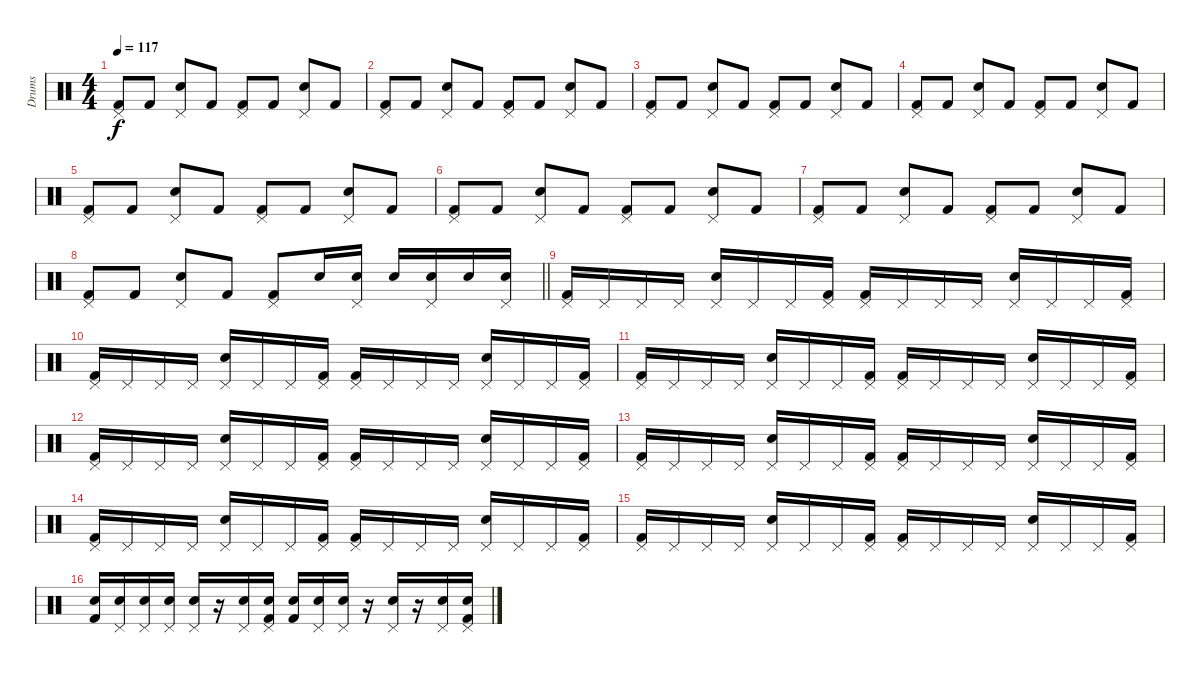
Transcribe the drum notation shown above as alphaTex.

\track ("Drums" "Drums") {instrument percussion}
\staff {score}
\articulation defaults
\ts (4 4)
\tempo 117
\clef neutral
\ks c
("Kick (hit) 2" "Pedal Hi-Hat (hit)").8{dy f} "Kick (hit) 2".8 ("Snare (hit) 2" "Pedal Hi-Hat (hit)").8 "Kick (hit) 2".8 ("Kick (hit) 2" "Pedal Hi-Hat (hit)").8 "Kick (hit) 2".8 ("Snare (hit) 2" "Pedal Hi-Hat (hit)").8 "Kick (hit) 2".8 |
("Kick (hit) 2" "Pedal Hi-Hat (hit)").8 "Kick (hit) 2".8 ("Snare (hit) 2" "Pedal Hi-Hat (hit)").8 "Kick (hit) 2".8 ("Kick (hit) 2" "Pedal Hi-Hat (hit)").8 "Kick (hit) 2".8 ("Snare (hit) 2" "Pedal Hi-Hat (hit)").8 "Kick (hit) 2".8 |
("Kick (hit) 2" "Pedal Hi-Hat (hit)").8 "Kick (hit) 2".8 ("Snare (hit) 2" "Pedal Hi-Hat (hit)").8 "Kick (hit) 2".8 ("Kick (hit) 2" "Pedal Hi-Hat (hit)").8 "Kick (hit) 2".8 ("Snare (hit) 2" "Pedal Hi-Hat (hit)").8 "Kick (hit) 2".8 |
("Kick (hit) 2" "Pedal Hi-Hat (hit)").8 "Kick (hit) 2".8 ("Snare (hit) 2" "Pedal Hi-Hat (hit)").8 "Kick (hit) 2".8 ("Kick (hit) 2" "Pedal Hi-Hat (hit)").8 "Kick (hit) 2".8 ("Snare (hit) 2" "Pedal Hi-Hat (hit)").8 "Kick (hit) 2".8 |
("Kick (hit) 2" "Pedal Hi-Hat (hit)").8 "Kick (hit) 2".8 ("Snare (hit) 2" "Pedal Hi-Hat (hit)").8 "Kick (hit) 2".8 ("Kick (hit) 2" "Pedal Hi-Hat (hit)").8 "Kick (hit) 2".8 ("Snare (hit) 2" "Pedal Hi-Hat (hit)").8 "Kick (hit) 2".8 |
("Kick (hit) 2" "Pedal Hi-Hat (hit)").8 "Kick (hit) 2".8 ("Snare (hit) 2" "Pedal Hi-Hat (hit)").8 "Kick (hit) 2".8 ("Kick (hit) 2" "Pedal Hi-Hat (hit)").8 "Kick (hit) 2".8 ("Snare (hit) 2" "Pedal Hi-Hat (hit)").8 "Kick (hit) 2".8 |
("Kick (hit) 2" "Pedal Hi-Hat (hit)").8 "Kick (hit) 2".8 ("Snare (hit) 2" "Pedal Hi-Hat (hit)").8 "Kick (hit) 2".8 ("Kick (hit) 2" "Pedal Hi-Hat (hit)").8 "Kick (hit) 2".8 ("Snare (hit) 2" "Pedal Hi-Hat (hit)").8 "Kick (hit) 2".8 |
\barLineRight lightlight
("Kick (hit) 2" "Pedal Hi-Hat (hit)").8 "Kick (hit) 2".8 ("Snare (hit) 2" "Pedal Hi-Hat (hit)").8 "Kick (hit) 2".8 ("Kick (hit) 2" "Pedal Hi-Hat (hit)").8 "Snare (hit) 2".16 ("Snare (hit) 2" "Pedal Hi-Hat (hit)").16 "Snare (hit) 2".16 ("Snare (hit) 2" "Pedal Hi-Hat (hit)").16 "Snare (hit) 2".16 ("Snare (hit) 2" "Pedal Hi-Hat (hit)").16 |
("Kick (hit) 2" "Pedal Hi-Hat (hit)").16 "Pedal Hi-Hat (hit)".16 "Pedal Hi-Hat (hit)".16 "Pedal Hi-Hat (hit)".16 ("Snare (hit) 2" "Pedal Hi-Hat (hit)").16 "Pedal Hi-Hat (hit)".16 "Pedal Hi-Hat (hit)".16 ("Kick (hit) 2" "Pedal Hi-Hat (hit)").16 ("Kick (hit) 2" "Pedal Hi-Hat (hit)").16 "Pedal Hi-Hat (hit)".16 "Pedal Hi-Hat (hit)".16 "Pedal Hi-Hat (hit)".16 ("Snare (hit) 2" "Pedal Hi-Hat (hit)").16 "Pedal Hi-Hat (hit)".16 "Pedal Hi-Hat (hit)".16 ("Kick (hit) 2" "Pedal Hi-Hat (hit)").16 |
("Kick (hit) 2" "Pedal Hi-Hat (hit)").16 "Pedal Hi-Hat (hit)".16 "Pedal Hi-Hat (hit)".16 "Pedal Hi-Hat (hit)".16 ("Snare (hit) 2" "Pedal Hi-Hat (hit)").16 "Pedal Hi-Hat (hit)".16 "Pedal Hi-Hat (hit)".16 ("Kick (hit) 2" "Pedal Hi-Hat (hit)").16 ("Kick (hit) 2" "Pedal Hi-Hat (hit)").16 "Pedal Hi-Hat (hit)".16 "Pedal Hi-Hat (hit)".16 "Pedal Hi-Hat (hit)".16 ("Snare (hit) 2" "Pedal Hi-Hat (hit)").16 "Pedal Hi-Hat (hit)".16 "Pedal Hi-Hat (hit)".16 ("Kick (hit) 2" "Pedal Hi-Hat (hit)").16 |
("Kick (hit) 2" "Pedal Hi-Hat (hit)").16 "Pedal Hi-Hat (hit)".16 "Pedal Hi-Hat (hit)".16 "Pedal Hi-Hat (hit)".16 ("Snare (hit) 2" "Pedal Hi-Hat (hit)").16 "Pedal Hi-Hat (hit)".16 "Pedal Hi-Hat (hit)".16 ("Kick (hit) 2" "Pedal Hi-Hat (hit)").16 ("Kick (hit) 2" "Pedal Hi-Hat (hit)").16 "Pedal Hi-Hat (hit)".16 "Pedal Hi-Hat (hit)".16 "Pedal Hi-Hat (hit)".16 ("Snare (hit) 2" "Pedal Hi-Hat (hit)").16 "Pedal Hi-Hat (hit)".16 "Pedal Hi-Hat (hit)".16 ("Kick (hit) 2" "Pedal Hi-Hat (hit)").16 |
("Kick (hit) 2" "Pedal Hi-Hat (hit)").16 "Pedal Hi-Hat (hit)".16 "Pedal Hi-Hat (hit)".16 "Pedal Hi-Hat (hit)".16 ("Snare (hit) 2" "Pedal Hi-Hat (hit)").16 "Pedal Hi-Hat (hit)".16 "Pedal Hi-Hat (hit)".16 ("Kick (hit) 2" "Pedal Hi-Hat (hit)").16 ("Kick (hit) 2" "Pedal Hi-Hat (hit)").16 "Pedal Hi-Hat (hit)".16 "Pedal Hi-Hat (hit)".16 "Pedal Hi-Hat (hit)".16 ("Snare (hit) 2" "Pedal Hi-Hat (hit)").16 "Pedal Hi-Hat (hit)".16 "Pedal Hi-Hat (hit)".16 ("Kick (hit) 2" "Pedal Hi-Hat (hit)").16 |
("Kick (hit) 2" "Pedal Hi-Hat (hit)").16 "Pedal Hi-Hat (hit)".16 "Pedal Hi-Hat (hit)".16 "Pedal Hi-Hat (hit)".16 ("Snare (hit) 2" "Pedal Hi-Hat (hit)").16 "Pedal Hi-Hat (hit)".16 "Pedal Hi-Hat (hit)".16 ("Kick (hit) 2" "Pedal Hi-Hat (hit)").16 ("Kick (hit) 2" "Pedal Hi-Hat (hit)").16 "Pedal Hi-Hat (hit)".16 "Pedal Hi-Hat (hit)".16 "Pedal Hi-Hat (hit)".16 ("Snare (hit) 2" "Pedal Hi-Hat (hit)").16 "Pedal Hi-Hat (hit)".16 "Pedal Hi-Hat (hit)".16 ("Kick (hit) 2" "Pedal Hi-Hat (hit)").16 |
("Kick (hit) 2" "Pedal Hi-Hat (hit)").16 "Pedal Hi-Hat (hit)".16 "Pedal Hi-Hat (hit)".16 "Pedal Hi-Hat (hit)".16 ("Snare (hit) 2" "Pedal Hi-Hat (hit)").16 "Pedal Hi-Hat (hit)".16 "Pedal Hi-Hat (hit)".16 ("Kick (hit) 2" "Pedal Hi-Hat (hit)").16 ("Kick (hit) 2" "Pedal Hi-Hat (hit)").16 "Pedal Hi-Hat (hit)".16 "Pedal Hi-Hat (hit)".16 "Pedal Hi-Hat (hit)".16 ("Snare (hit) 2" "Pedal Hi-Hat (hit)").16 "Pedal Hi-Hat (hit)".16 "Pedal Hi-Hat (hit)".16 ("Kick (hit) 2" "Pedal Hi-Hat (hit)").16 |
("Kick (hit) 2" "Pedal Hi-Hat (hit)").16 "Pedal Hi-Hat (hit)".16 "Pedal Hi-Hat (hit)".16 "Pedal Hi-Hat (hit)".16 ("Snare (hit) 2" "Pedal Hi-Hat (hit)").16 "Pedal Hi-Hat (hit)".16 "Pedal Hi-Hat (hit)".16 ("Kick (hit) 2" "Pedal Hi-Hat (hit)").16 ("Kick (hit) 2" "Pedal Hi-Hat (hit)").16 "Pedal Hi-Hat (hit)".16 "Pedal Hi-Hat (hit)".16 "Pedal Hi-Hat (hit)".16 ("Snare (hit) 2" "Pedal Hi-Hat (hit)").16 "Pedal Hi-Hat (hit)".16 "Pedal Hi-Hat (hit)".16 ("Kick (hit) 2" "Pedal Hi-Hat (hit)").16 |
("Kick (hit) 2" "Snare (hit) 2").16 ("Snare (hit) 2" "Pedal Hi-Hat (hit)").16 ("Snare (hit) 2" "Pedal Hi-Hat (hit)").16 ("Snare (hit) 2" "Pedal Hi-Hat (hit)").16 ("Snare (hit) 2" "Pedal Hi-Hat (hit)").16 r.16 ("Snare (hit) 2" "Pedal Hi-Hat (hit)").16 ("Kick (hit) 2" "Snare (hit) 2" "Pedal Hi-Hat (hit)").16 ("Kick (hit) 2" "Snare (hit) 2").16 ("Snare (hit) 2" "Pedal Hi-Hat (hit)").16 ("Snare (hit) 2" "Pedal Hi-Hat (hit)").16 r.16 ("Snare (hit) 2" "Pedal Hi-Hat (hit)").16 r.16 ("Snare (hit) 2" "Pedal Hi-Hat (hit)").16 ("Kick (hit) 2" "Snare (hit) 2" "Pedal Hi-Hat (hit)").16
